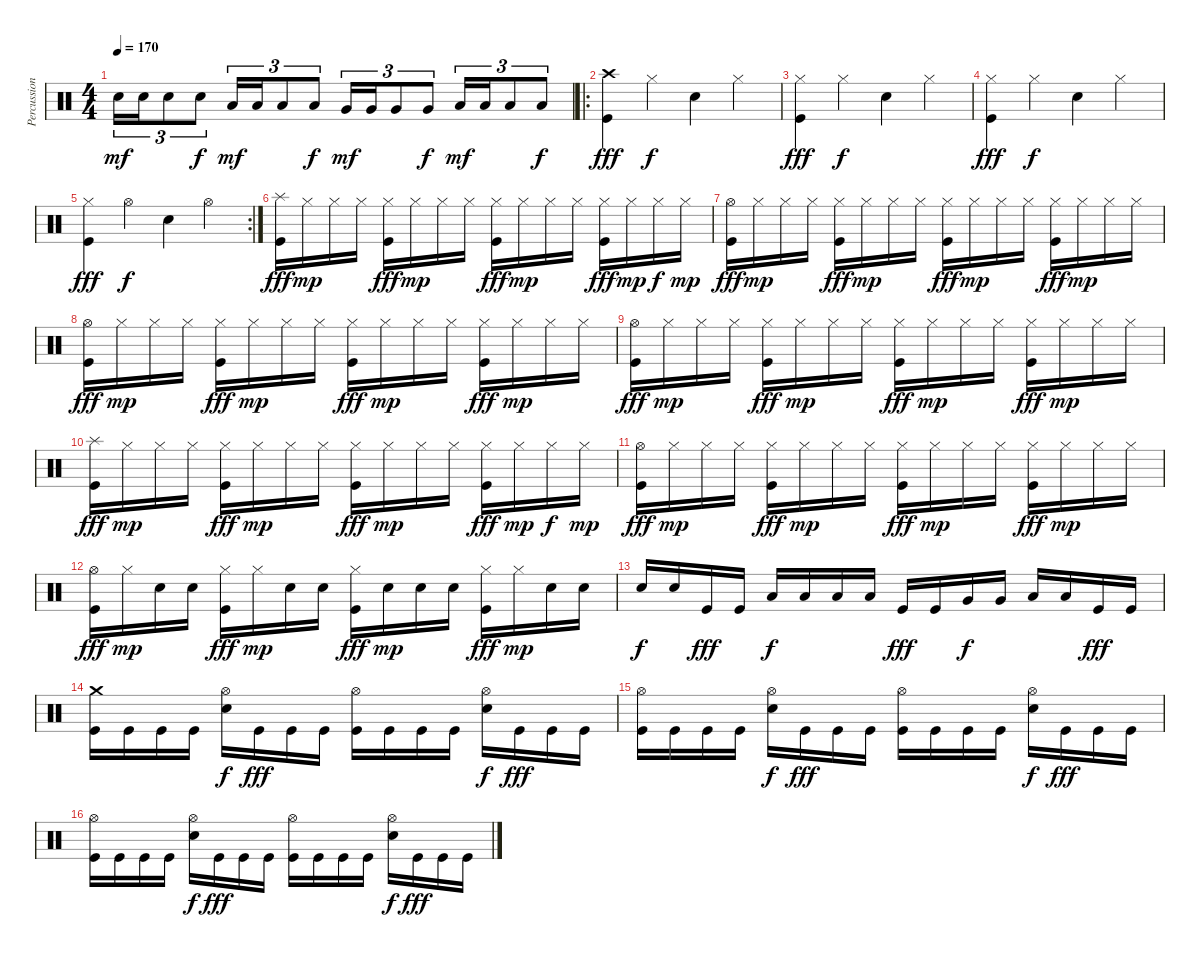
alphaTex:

\track ("Percussion" "Percussion") {instrument percussion}
\staff {score}
\articulation defaults
\ts (4 4)
\tempo 170
\clef neutral
\ks c "Electric Snare (hit)".16{tu (3 2) dy mf} "Electric Snare (hit)".16{tu (3 2)} "Electric Snare (hit)".8{tu (3 2)} "Electric Snare (hit)".8{tu (3 2) dy f} "Low Tom (hit)".16{tu (3 2) dy mf} "Low Tom (hit)".16{tu (3 2)} "Low Tom (hit)".8{tu (3 2)} "Low Tom (hit)".8{tu (3 2) dy f} "Very Low Tom (hit)".16{tu (3 2) dy mf} "Very Low Tom (hit)".16{tu (3 2)} "Very Low Tom (hit)".8{tu (3 2)} "Very Low Tom (hit)".8{tu (3 2) dy f} "Low Floor Tom (hit)".16{tu (3 2) dy mf} "Low Floor Tom (hit)".16{tu (3 2)} "Low Floor Tom (hit)".8{tu (3 2)} "Low Floor Tom (hit)".8{tu (3 2) dy f}
|
\ro
("Crash high (hit)" "Kick (hit)").4{dy fff} "Hi-Hat (closed)".4{dy f} "Electric Snare (hit)".4 "Hi-Hat (closed)".4 |
("Hi-Hat (closed)" "Kick (hit)").4{dy fff} "Hi-Hat (closed)".4{dy f} "Electric Snare (hit)".4 "Hi-Hat (closed)".4 |
("Hi-Hat (closed)" "Kick (hit)").4{dy fff} "Hi-Hat (closed)".4{dy f} "Electric Snare (hit)".4 "Hi-Hat (closed)".4 |
\rc 2
("Hi-Hat (closed)" "Kick (hit)").4{dy fff} "Hi-Hat (open)".4{dy f} "Electric Snare (hit)".4 "Hi-Hat (open)".4 |
("Splash (hit)" "Kick (hit)").16{dy fff} "Hi-Hat (closed)".16{dy mp} "Hi-Hat (closed)".16 "Hi-Hat (closed)".16 ("Hi-Hat (closed)" "Kick (hit)").16{dy fff} "Hi-Hat (closed)".16{dy mp} "Hi-Hat (closed)".16 "Hi-Hat (closed)".16 ("Hi-Hat (closed)" "Kick (hit)").16{dy fff} "Hi-Hat (closed)".16{dy mp} "Hi-Hat (closed)".16 "Hi-Hat (closed)".16 ("Hi-Hat (closed)" "Kick (hit)").16{dy fff} "Hi-Hat (closed)".16{dy mp} "Hi-Hat (closed)".16{dy f} "Hi-Hat (closed)".16{dy mp} |
("Hi-Hat (open)" "Kick (hit)").16{dy fff} "Hi-Hat (closed)".16{dy mp} "Hi-Hat (closed)".16 "Hi-Hat (closed)".16 ("Hi-Hat (closed)" "Kick (hit)").16{dy fff} "Hi-Hat (closed)".16{dy mp} "Hi-Hat (closed)".16 "Hi-Hat (closed)".16 ("Hi-Hat (closed)" "Kick (hit)").16{dy fff} "Hi-Hat (closed)".16{dy mp} "Hi-Hat (closed)".16 "Hi-Hat (closed)".16 ("Hi-Hat (closed)" "Kick (hit)").16{dy fff} "Hi-Hat (closed)".16{dy mp} "Hi-Hat (closed)".16 "Hi-Hat (closed)".16 |
("Hi-Hat (open)" "Kick (hit)").16{dy fff} "Hi-Hat (closed)".16{dy mp} "Hi-Hat (closed)".16 "Hi-Hat (closed)".16 ("Hi-Hat (closed)" "Kick (hit)").16{dy fff} "Hi-Hat (closed)".16{dy mp} "Hi-Hat (closed)".16 "Hi-Hat (closed)".16 ("Hi-Hat (closed)" "Kick (hit)").16{dy fff} "Hi-Hat (closed)".16{dy mp} "Hi-Hat (closed)".16 "Hi-Hat (closed)".16 ("Hi-Hat (closed)" "Kick (hit)").16{dy fff} "Hi-Hat (closed)".16{dy mp} "Hi-Hat (closed)".16 "Hi-Hat (closed)".16 |
("Hi-Hat (open)" "Kick (hit)").16{dy fff} "Hi-Hat (closed)".16{dy mp} "Hi-Hat (closed)".16 "Hi-Hat (closed)".16 ("Hi-Hat (closed)" "Kick (hit)").16{dy fff} "Hi-Hat (closed)".16{dy mp} "Hi-Hat (closed)".16 "Hi-Hat (closed)".16 ("Hi-Hat (closed)" "Kick (hit)").16{dy fff} "Hi-Hat (closed)".16{dy mp} "Hi-Hat (closed)".16 "Hi-Hat (closed)".16 ("Hi-Hat (closed)" "Kick (hit)").16{dy fff} "Hi-Hat (closed)".16{dy mp} "Hi-Hat (closed)".16 "Hi-Hat (closed)".16 |
("Splash (hit)" "Kick (hit)").16{dy fff} "Hi-Hat (closed)".16{dy mp} "Hi-Hat (closed)".16 "Hi-Hat (closed)".16 ("Hi-Hat (closed)" "Kick (hit)").16{dy fff} "Hi-Hat (closed)".16{dy mp} "Hi-Hat (closed)".16 "Hi-Hat (closed)".16 ("Hi-Hat (closed)" "Kick (hit)").16{dy fff} "Hi-Hat (closed)".16{dy mp} "Hi-Hat (closed)".16 "Hi-Hat (closed)".16 ("Hi-Hat (closed)" "Kick (hit)").16{dy fff} "Hi-Hat (closed)".16{dy mp} "Hi-Hat (closed)".16{dy f} "Hi-Hat (closed)".16{dy mp} |
("Hi-Hat (open)" "Kick (hit)").16{dy fff} "Hi-Hat (closed)".16{dy mp} "Hi-Hat (closed)".16 "Hi-Hat (closed)".16 ("Hi-Hat (closed)" "Kick (hit)").16{dy fff} "Hi-Hat (closed)".16{dy mp} "Hi-Hat (closed)".16 "Hi-Hat (closed)".16 ("Hi-Hat (closed)" "Kick (hit)").16{dy fff} "Hi-Hat (closed)".16{dy mp} "Hi-Hat (closed)".16 "Hi-Hat (closed)".16 ("Hi-Hat (closed)" "Kick (hit)").16{dy fff} "Hi-Hat (closed)".16{dy mp} "Hi-Hat (closed)".16 "Hi-Hat (closed)".16 |
("Hi-Hat (open)" "Kick (hit)").16{dy fff} "Hi-Hat (closed)".16{dy mp} "Electric Snare (hit)".16 "Electric Snare (hit)".16 ("Hi-Hat (closed)" "Kick (hit)").16{dy fff} "Hi-Hat (closed)".16{dy mp} "Electric Snare (hit)".16 "Electric Snare (hit)".16 ("Hi-Hat (closed)" "Kick (hit)").16{dy fff} "Electric Snare (hit)".16{dy mp} "Electric Snare (hit)".16 "Electric Snare (hit)".16 ("Hi-Hat (closed)" "Kick (hit)").16{dy fff} "Hi-Hat (closed)".16{dy mp} "Electric Snare (hit)".16 "Electric Snare (hit)".16 |
"Electric Snare (hit)".16{dy f} "Electric Snare (hit)".16 "Kick (hit)".16{dy fff} "Kick (hit)".16 "Low Tom (hit)".16{dy f} "Low Tom (hit)".16 "Low Tom (hit)".16 "Low Tom (hit)".16 "Kick (hit)".16{dy fff} "Kick (hit)".16 "Very Low Tom (hit)".16{dy f} "Very Low Tom (hit)".16 "Low Floor Tom (hit)".16 "Low Floor Tom (hit)".16 "Kick (hit)".16{dy fff} "Kick (hit)".16 |
("Crash medium (hit)" "Kick (hit)").16 "Kick (hit)".16 "Kick (hit)".16 "Kick (hit)".16 ("Hi-Hat (open)" "Electric Snare (hit)").16{dy f} "Kick (hit)".16{dy fff} "Kick (hit)".16 "Kick (hit)".16 ("Hi-Hat (open)" "Kick (hit)").16 "Kick (hit)".16 "Kick (hit)".16 "Kick (hit)".16 ("Hi-Hat (open)" "Electric Snare (hit)").16{dy f} "Kick (hit)".16{dy fff} "Kick (hit)".16 "Kick (hit)".16 |
("Hi-Hat (open)" "Kick (hit)").16 "Kick (hit)".16 "Kick (hit)".16 "Kick (hit)".16 ("Hi-Hat (open)" "Electric Snare (hit)").16{dy f} "Kick (hit)".16{dy fff} "Kick (hit)".16 "Kick (hit)".16 ("Hi-Hat (open)" "Kick (hit)").16 "Kick (hit)".16 "Kick (hit)".16 "Kick (hit)".16 ("Hi-Hat (open)" "Electric Snare (hit)").16{dy f} "Kick (hit)".16{dy fff} "Kick (hit)".16 "Kick (hit)".16 |
("Hi-Hat (open)" "Kick (hit)").16 "Kick (hit)".16 "Kick (hit)".16 "Kick (hit)".16 ("Hi-Hat (open)" "Electric Snare (hit)").16{dy f} "Kick (hit)".16{dy fff} "Kick (hit)".16 "Kick (hit)".16 ("Hi-Hat (open)" "Kick (hit)").16 "Kick (hit)".16 "Kick (hit)".16 "Kick (hit)".16 ("Hi-Hat (open)" "Electric Snare (hit)").16{dy f} "Kick (hit)".16{dy fff} "Kick (hit)".16 "Kick (hit)".16
